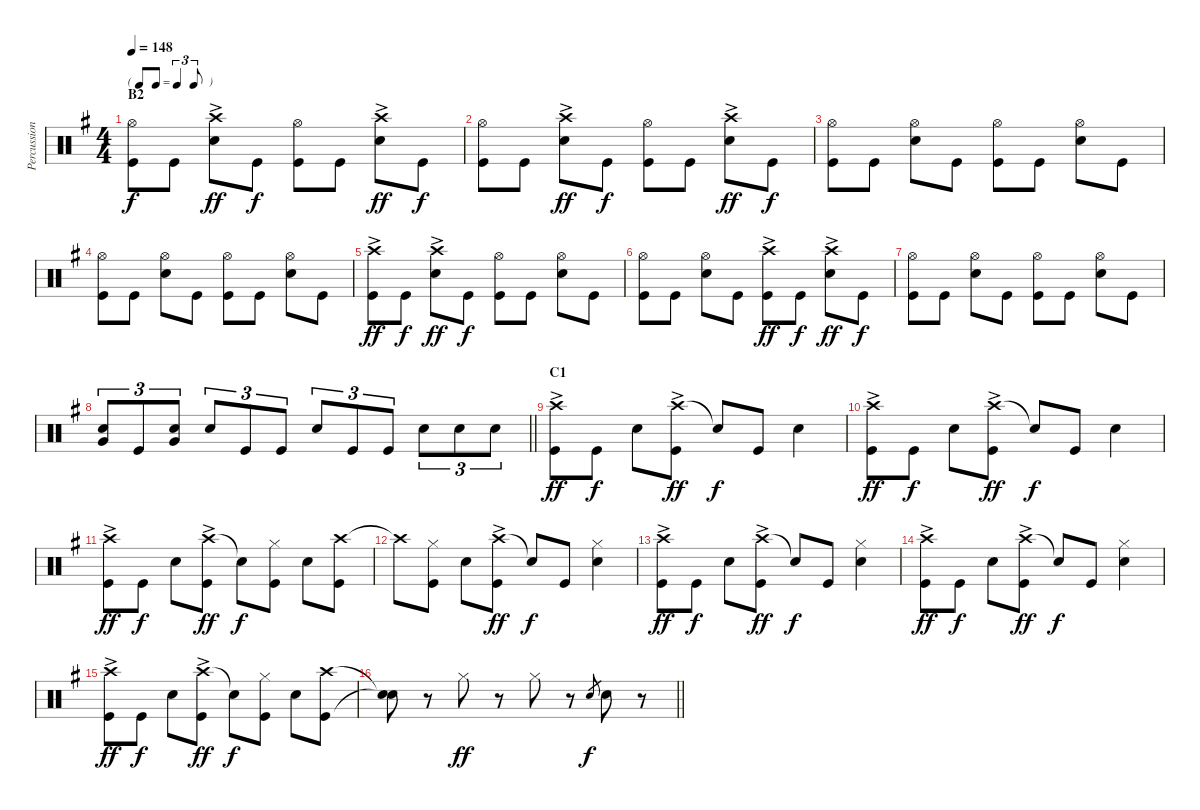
\track ("Percussion" "Percussion") {instrument percussion}
\staff {score}
\articulation defaults
\ts (4 4)
\tf triplet8th
\section ("" "B2")
\tempo 148
\clef neutral
\ks g
("Hi-Hat (open)" "Kick (hit)").8{dy f} "Kick (hit)".8 ("Crash high (hit)"{ac} "Snare (hit) 2").8{dy ff} "Kick (hit)".8{dy f} ("Hi-Hat (open)" "Kick (hit)").8 "Kick (hit)".8 ("Crash high (hit)"{ac} "Snare (hit) 2").8{dy ff} "Kick (hit)".8{dy f} |
("Hi-Hat (open)" "Kick (hit)").8 "Kick (hit)".8 ("Crash high (hit)"{ac} "Snare (hit) 2").8{dy ff} "Kick (hit)".8{dy f} ("Hi-Hat (open)" "Kick (hit)").8 "Kick (hit)".8 ("Crash high (hit)"{ac} "Snare (hit) 2").8{dy ff} "Kick (hit)".8{dy f} |
("Hi-Hat (open)" "Kick (hit)").8 "Kick (hit)".8 ("Hi-Hat (open)" "Snare (hit) 2").8 "Kick (hit)".8 ("Hi-Hat (open)" "Kick (hit)").8 "Kick (hit)".8 ("Hi-Hat (open)" "Snare (hit) 2").8 "Kick (hit)".8 |
("Hi-Hat (open)" "Kick (hit)").8 "Kick (hit)".8 ("Hi-Hat (open)" "Snare (hit) 2").8 "Kick (hit)".8 ("Hi-Hat (open)" "Kick (hit)").8 "Kick (hit)".8 ("Hi-Hat (open)" "Snare (hit) 2").8 "Kick (hit)".8 |
("Crash high (hit)"{ac} "Kick (hit)").8{dy ff} "Kick (hit)".8{dy f} ("Crash high (hit)"{ac} "Snare (hit) 2").8{dy ff} "Kick (hit)".8{dy f} ("Hi-Hat (open)" "Kick (hit)").8 "Kick (hit)".8 ("Hi-Hat (open)" "Snare (hit) 2").8 "Kick (hit)".8 |
("Hi-Hat (open)" "Kick (hit)").8 "Kick (hit)".8 ("Hi-Hat (open)" "Snare (hit) 2").8 "Kick (hit)".8 ("Crash high (hit)"{ac} "Kick (hit)").8{dy ff} "Kick (hit)".8{dy f} ("Crash high (hit)"{ac} "Snare (hit) 2").8{dy ff} "Kick (hit)".8{dy f} |
("Hi-Hat (open)" "Kick (hit)").8 "Kick (hit)".8 ("Hi-Hat (open)" "Snare (hit) 2").8 "Kick (hit)".8 ("Hi-Hat (open)" "Kick (hit)").8 "Kick (hit)".8 ("Hi-Hat (open)" "Snare (hit) 2").8 "Kick (hit)".8 |
\barLineRight lightlight
("Snare (hit) 2" "Very Low Tom (hit)").8{tu (3 2)} "Kick (hit)".8{tu (3 2)} ("Snare (hit) 2" "Very Low Tom (hit)").8{tu (3 2)} "Snare (hit) 2".8{tu (3 2)} "Kick (hit)".8{tu (3 2)} "Kick (hit)".8{tu (3 2)} "Snare (hit) 2".8{tu (3 2)} "Kick (hit)".8{tu (3 2)} "Kick (hit)".8{tu (3 2)} "Snare (hit) 2".8{tu (3 2)} "Snare (hit) 2".8{tu (3 2)} "Snare (hit) 2".8{tu (3 2)} |
\section ("" "C1")
("Crash high (hit)"{ac} "Kick (hit)").8{dy ff} "Kick (hit)".8{dy f} "Snare (hit) 2".8 ("Crash high (hit)"{ac} "Kick (hit)").8{dy ff} "Snare (hit)"{t}.8{dy f} "Kick (hit)".8 "Snare (hit) 2".4 |
("Crash high (hit)"{ac} "Kick (hit)").8{dy ff} "Kick (hit)".8{dy f} "Snare (hit) 2".8 ("Crash high (hit)"{ac} "Kick (hit)").8{dy ff} "Snare (hit)"{t}.8{dy f} "Kick (hit)".8 "Snare (hit) 2".4 |
("Crash high (hit)"{ac} "Kick (hit)").8{dy ff} "Kick (hit)".8{dy f} "Snare (hit) 2".8 ("Crash high (hit)"{ac} "Kick (hit)").8{dy ff} "Snare (hit)"{t}.8{dy f} ("Hi-Hat (closed)" "Kick (hit)").8 "Snare (hit) 2".8 ("Crash high (hit)" "Kick (hit)").8 |
"Crash high (hit)"{t}.8 ("Hi-Hat (closed)" "Kick (hit)").8 "Snare (hit) 2".8 ("Crash high (hit)"{ac} "Kick (hit)").8{dy ff} "Snare (hit)"{t}.8{dy f} "Kick (hit)".8 ("Hi-Hat (closed)" "Snare (hit) 2").4 |
("Crash high (hit)"{ac} "Kick (hit)").8{dy ff} "Kick (hit)".8{dy f} "Snare (hit) 2".8 ("Crash high (hit)"{ac} "Kick (hit)").8{dy ff} "Snare (hit)"{t}.8{dy f} "Kick (hit)".8 ("Hi-Hat (closed)" "Snare (hit) 2").4 |
("Crash high (hit)"{ac} "Kick (hit)").8{dy ff} "Kick (hit)".8{dy f} "Snare (hit) 2".8 ("Crash high (hit)"{ac} "Kick (hit)").8{dy ff} "Snare (hit)"{t}.8{dy f} "Kick (hit)".8 ("Hi-Hat (closed)" "Snare (hit) 2").4 |
("Crash high (hit)"{ac} "Kick (hit)").8{dy ff} "Kick (hit)".8{dy f} "Snare (hit) 2".8 ("Crash high (hit)"{ac} "Kick (hit)").8{dy ff} "Snare (hit)"{t}.8{dy f} ("Hi-Hat (closed)" "Kick (hit)").8 "Snare (hit) 2".8 ("Crash high (hit)" "Kick (hit)").8 |
\barLineRight lightlight
("Snare (hit)"{t} "Snare (hit)"{t}).8 r.8 "Hi-Hat (closed)".8{dy ff} r.8 "Hi-Hat (closed)".8 r.8 "Snare (hit) 2".8{gr dy f} "Snare (hit) 2".8 r.8
